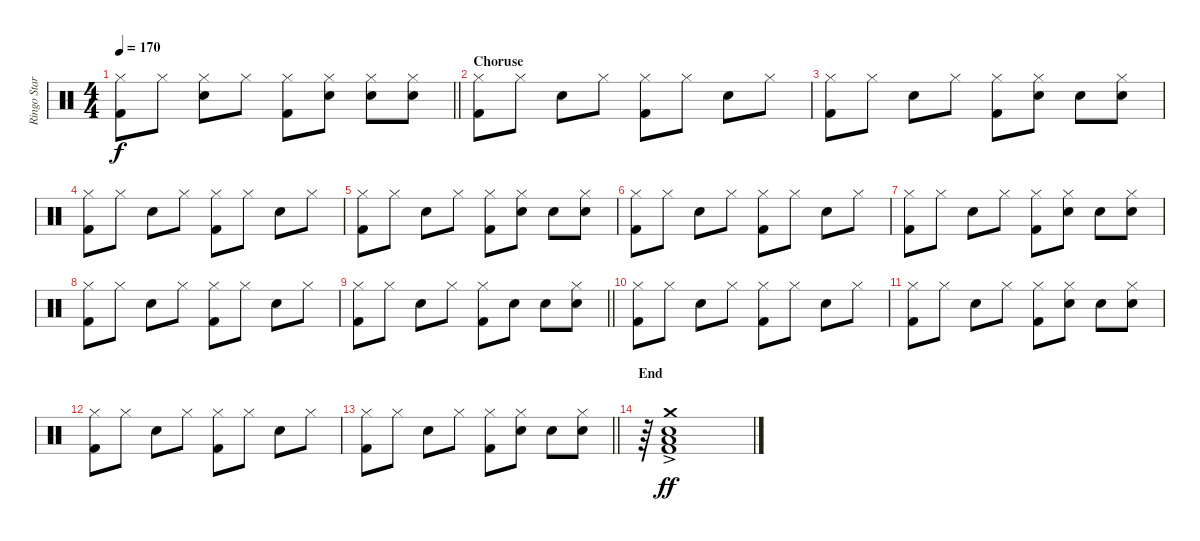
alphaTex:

\track ("Ringo Star (Thomas)" "Ringo Star") {instrument percussion}
\staff {score}
\articulation defaults
\ts (4 4)
\tempo 170
\clef neutral
\barLineRight lightlight
\ks c
("Hi-Hat (closed)" "Kick (hit) 2").8{dy f} "Hi-Hat (closed)".8 ("Hi-Hat (closed)" "Snare (hit) 2").8 "Hi-Hat (closed)".8 ("Hi-Hat (closed)" "Kick (hit) 2").8 ("Hi-Hat (closed)" "Snare (hit) 2").8 ("Hi-Hat (closed)" "Snare (hit) 2").8 ("Hi-Hat (closed)" "Snare (hit) 2").8 |
\section ("" "Choruse")
("Hi-Hat (closed)" "Kick (hit) 2").8 "Hi-Hat (closed)".8 "Snare (hit) 2".8 "Hi-Hat (closed)".8 ("Hi-Hat (closed)" "Kick (hit) 2").8 "Hi-Hat (closed)".8 "Snare (hit) 2".8 "Hi-Hat (closed)".8 |
("Hi-Hat (closed)" "Kick (hit) 2").8 "Hi-Hat (closed)".8 "Snare (hit) 2".8 "Hi-Hat (closed)".8 ("Hi-Hat (closed)" "Kick (hit) 2").8 ("Hi-Hat (closed)" "Snare (hit) 2").8 "Snare (hit) 2".8 ("Hi-Hat (closed)" "Snare (hit) 2").8 |
("Hi-Hat (closed)" "Kick (hit) 2").8 "Hi-Hat (closed)".8 "Snare (hit) 2".8 "Hi-Hat (closed)".8 ("Hi-Hat (closed)" "Kick (hit) 2").8 "Hi-Hat (closed)".8 "Snare (hit) 2".8 "Hi-Hat (closed)".8 |
("Hi-Hat (closed)" "Kick (hit) 2").8 "Hi-Hat (closed)".8 "Snare (hit) 2".8 "Hi-Hat (closed)".8 ("Hi-Hat (closed)" "Kick (hit) 2").8 ("Hi-Hat (closed)" "Snare (hit) 2").8 "Snare (hit) 2".8 ("Hi-Hat (closed)" "Snare (hit) 2").8 |
("Hi-Hat (closed)" "Kick (hit) 2").8 "Hi-Hat (closed)".8 "Snare (hit) 2".8 "Hi-Hat (closed)".8 ("Hi-Hat (closed)" "Kick (hit) 2").8 "Hi-Hat (closed)".8 "Snare (hit) 2".8 "Hi-Hat (closed)".8 |
("Hi-Hat (closed)" "Kick (hit) 2").8 "Hi-Hat (closed)".8 "Snare (hit) 2".8 "Hi-Hat (closed)".8 ("Hi-Hat (closed)" "Kick (hit) 2").8 ("Hi-Hat (closed)" "Snare (hit) 2").8 "Snare (hit) 2".8 ("Hi-Hat (closed)" "Snare (hit) 2").8 |
("Hi-Hat (closed)" "Kick (hit) 2").8 "Hi-Hat (closed)".8 "Snare (hit) 2".8 "Hi-Hat (closed)".8 ("Hi-Hat (closed)" "Kick (hit) 2").8 "Hi-Hat (closed)".8 "Snare (hit) 2".8 "Hi-Hat (closed)".8 |
\barLineRight lightlight
("Hi-Hat (closed)" "Kick (hit) 2").8 "Hi-Hat (closed)".8 "Snare (hit) 2".8 "Hi-Hat (closed)".8 ("Hi-Hat (closed)" "Kick (hit) 2").8 "Snare (hit) 2".8 "Snare (hit) 2".8 ("Hi-Hat (closed)" "Snare (hit) 2").8 |
("Hi-Hat (closed)" "Kick (hit) 2").8 "Hi-Hat (closed)".8 "Snare (hit) 2".8 "Hi-Hat (closed)".8 ("Hi-Hat (closed)" "Kick (hit) 2").8 "Hi-Hat (closed)".8 "Snare (hit) 2".8 "Hi-Hat (closed)".8 |
("Hi-Hat (closed)" "Kick (hit) 2").8 "Hi-Hat (closed)".8 "Snare (hit) 2".8 "Hi-Hat (closed)".8 ("Hi-Hat (closed)" "Kick (hit) 2").8 ("Hi-Hat (closed)" "Snare (hit) 2").8 "Snare (hit) 2".8 ("Hi-Hat (closed)" "Snare (hit) 2").8 |
("Hi-Hat (closed)" "Kick (hit) 2").8 "Hi-Hat (closed)".8 "Snare (hit) 2".8 "Hi-Hat (closed)".8 ("Hi-Hat (closed)" "Kick (hit) 2").8 "Hi-Hat (closed)".8 "Snare (hit) 2".8 "Hi-Hat (closed)".8 |
\barLineRight lightlight
("Hi-Hat (closed)" "Kick (hit) 2").8 "Hi-Hat (closed)".8 "Snare (hit) 2".8 "Hi-Hat (closed)".8 ("Hi-Hat (closed)" "Kick (hit) 2").8 ("Hi-Hat (closed)" "Snare (hit) 2").8 "Snare (hit) 2".8 ("Hi-Hat (closed)" "Snare (hit) 2").8 |
\section ("" "End")
r.64 ("Crash medium (hit)"{ac} "Low Tom (hit)"{ac} "Snare (hit) 2"{ac} "Kick (hit) 2"{ac}).1{dy ff}
